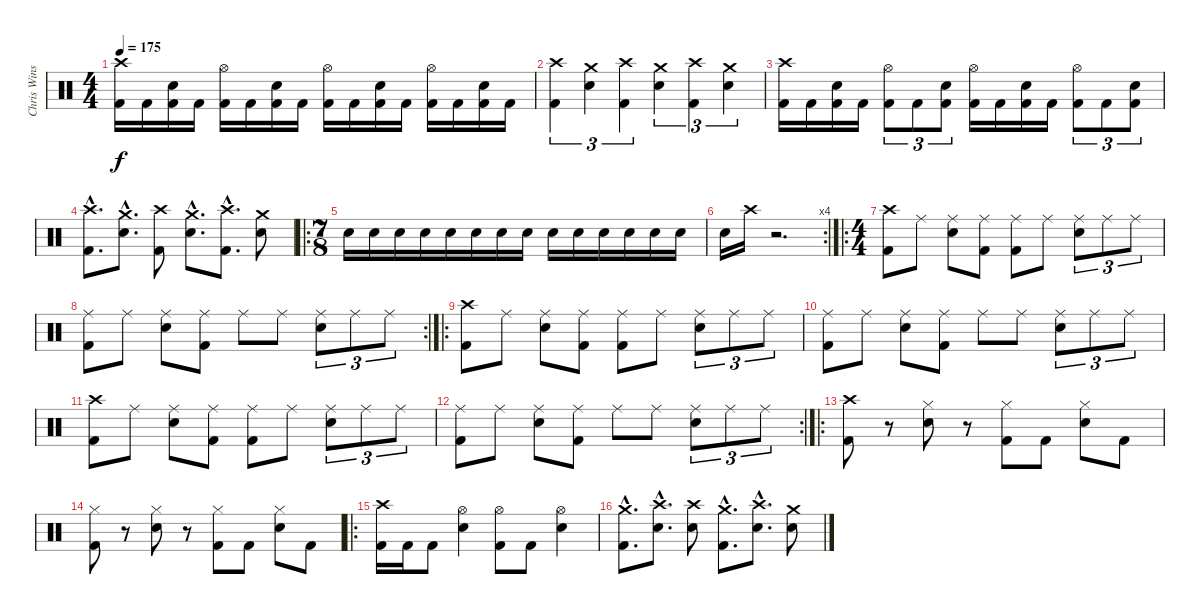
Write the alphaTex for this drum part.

\track ("Chris Winship (Drums)" "Chris Wins") {instrument percussion}
\staff {score}
\articulation defaults
\ts (4 4)
\tempo 175
\clef neutral
\ks c
("Crash high (hit)" "Kick (hit) 2").16{dy f} "Kick (hit) 2".16 ("Snare (hit) 2" "Kick (hit) 2").16 "Kick (hit) 2".16 ("Hi-Hat (open)" "Kick (hit) 2").16 "Kick (hit) 2".16 ("Snare (hit) 2" "Kick (hit) 2").16 "Kick (hit) 2".16 ("Hi-Hat (open)" "Kick (hit) 2").16 "Kick (hit) 2".16 ("Snare (hit) 2" "Kick (hit) 2").16 "Kick (hit) 2".16 ("Hi-Hat (open)" "Kick (hit) 2").16 "Kick (hit) 2".16 ("Snare (hit) 2" "Kick (hit) 2").16 "Kick (hit) 2".16 |
("Crash high (hit)" "Kick (hit) 2").4{tu (3 2)} ("Crash medium (hit)" "Snare (hit) 2").4{tu (3 2)} ("Crash high (hit)" "Kick (hit) 2").4{tu (3 2)} ("Crash medium (hit)" "Snare (hit) 2").4{tu (3 2)} ("Crash high (hit)" "Kick (hit) 2").4{tu (3 2)} ("Crash medium (hit)" "Snare (hit) 2").4{tu (3 2)} |
("Crash high (hit)" "Kick (hit) 2").16 "Kick (hit) 2".16 ("Snare (hit) 2" "Kick (hit) 2").16 "Kick (hit) 2".16 ("Hi-Hat (open)" "Kick (hit) 2").8{tu (3 2)} "Kick (hit) 2".8{tu (3 2)} ("Snare (hit) 2" "Kick (hit) 2").8{tu (3 2)} ("Hi-Hat (open)" "Kick (hit) 2").16 "Kick (hit) 2".16 ("Snare (hit) 2" "Kick (hit) 2").16 "Kick (hit) 2".16 ("Hi-Hat (open)" "Kick (hit) 2").8{tu (3 2)} "Kick (hit) 2".8{tu (3 2)} ("Snare (hit) 2" "Kick (hit) 2").8{tu (3 2)} |
("Crash high (hit)"{hac} "Kick (hit) 2"{hac}).8{d} ("Crash medium (hit)"{hac} "Snare (hit) 2"{hac}).8{d} ("Crash high (hit)" "Kick (hit) 2").8 ("Crash medium (hit)"{hac} "Snare (hit) 2"{hac}).8{d} ("Crash high (hit)"{hac} "Kick (hit) 2"{hac}).8{d} ("Crash medium (hit)" "Snare (hit) 2").8 |
\ro
\ts (7 8)
"Snare (hit) 2".16 "Snare (hit) 2".16 "Snare (hit) 2".16 "Snare (hit) 2".16 "Snare (hit) 2".16 "Snare (hit) 2".16 "Snare (hit) 2".16 "Snare (hit) 2".16 "Snare (hit) 2".16 "Snare (hit) 2".16 "Snare (hit) 2".16 "Snare (hit) 2".16 "Snare (hit) 2".16 "Snare (hit) 2".16 |
\rc 4 "Snare (hit) 2".16 "Crash high (hit)".16
r.2{d} |
\ro
\ts (4 4)
("Crash high (hit)" "Kick (hit) 2").8 "Ride (middle)".8 ("Ride (middle)" "Snare (hit) 2").8 ("Ride (middle)" "Kick (hit) 2").8 ("Ride (middle)" "Kick (hit) 2").8 "Ride (middle)".8 ("Ride (middle)" "Snare (hit) 2").8{tu (3 2)} "Ride (middle)".8{tu (3 2)} "Ride (middle)".8{tu (3 2)} |
\rc 2
("Ride (middle)" "Kick (hit) 2").8 "Ride (middle)".8 ("Ride (middle)" "Snare (hit) 2").8 ("Ride (middle)" "Kick (hit) 2").8 "Ride (middle)".8 "Ride (middle)".8 ("Ride (middle)" "Snare (hit) 2").8{tu (3 2)} "Ride (middle)".8{tu (3 2)} "Ride (middle)".8{tu (3 2)} |
\ro
("Crash high (hit)" "Kick (hit) 2").8 "Ride (middle)".8 ("Ride (middle)" "Snare (hit) 2").8 ("Ride (middle)" "Kick (hit) 2").8 ("Ride (middle)" "Kick (hit) 2").8 "Ride (middle)".8 ("Ride (middle)" "Snare (hit) 2").8{tu (3 2)} "Ride (middle)".8{tu (3 2)} "Ride (middle)".8{tu (3 2)} |
("Ride (middle)" "Kick (hit) 2").8 "Ride (middle)".8 ("Ride (middle)" "Snare (hit) 2").8 ("Ride (middle)" "Kick (hit) 2").8 "Ride (middle)".8 "Ride (middle)".8 ("Ride (middle)" "Snare (hit) 2").8{tu (3 2)} "Ride (middle)".8{tu (3 2)} "Ride (middle)".8{tu (3 2)} |
("Crash high (hit)" "Kick (hit) 2").8 "Ride (middle)".8 ("Ride (middle)" "Snare (hit) 2").8 ("Ride (middle)" "Kick (hit) 2").8 ("Ride (middle)" "Kick (hit) 2").8 "Ride (middle)".8 ("Ride (middle)" "Snare (hit) 2").8{tu (3 2)} "Ride (middle)".8{tu (3 2)} "Ride (middle)".8{tu (3 2)} |
\rc 2
("Ride (middle)" "Kick (hit) 2").8 "Ride (middle)".8 ("Ride (middle)" "Snare (hit) 2").8 ("Ride (middle)" "Kick (hit) 2").8 "Ride (middle)".8 "Ride (middle)".8 ("Ride (middle)" "Snare (hit) 2").8{tu (3 2)} "Ride (middle)".8{tu (3 2)} "Ride (middle)".8{tu (3 2)} |
\ro
("Crash high (hit)" "Kick (hit) 2").8 r.8 ("Hi-Hat (closed)" "Snare (hit) 2").8 r.8 ("Hi-Hat (closed)" "Kick (hit) 2").8 "Kick (hit) 2".8 ("Hi-Hat (closed)" "Snare (hit) 2").8 "Kick (hit) 2".8 |
("Hi-Hat (closed)" "Kick (hit) 2").8 r.8 ("Hi-Hat (closed)" "Snare (hit) 2").8 r.8 ("Hi-Hat (closed)" "Kick (hit) 2").8 "Kick (hit) 2".8 ("Hi-Hat (closed)" "Snare (hit) 2").8 "Kick (hit) 2".8 |
\ro
("Crash high (hit)" "Kick (hit) 2").16 "Kick (hit) 2".16 "Kick (hit) 2".8 ("Hi-Hat (open)" "Snare (hit) 2").4 ("Hi-Hat (open)" "Kick (hit) 2").8 "Kick (hit) 2".8 ("Hi-Hat (open)" "Snare (hit) 2").4 |
("Crash medium (hit)"{hac} "Kick (hit) 2"{hac}).8{d} ("Crash high (hit)"{hac} "Snare (hit) 2"{hac}).8{d} ("Crash high (hit)" "Snare (hit) 2").8 ("Crash medium (hit)"{hac} "Kick (hit) 2"{hac}).8{d} ("Crash high (hit)"{hac} "Snare (hit) 2"{hac}).8{d} ("Crash medium (hit)" "Snare (hit) 2").8
